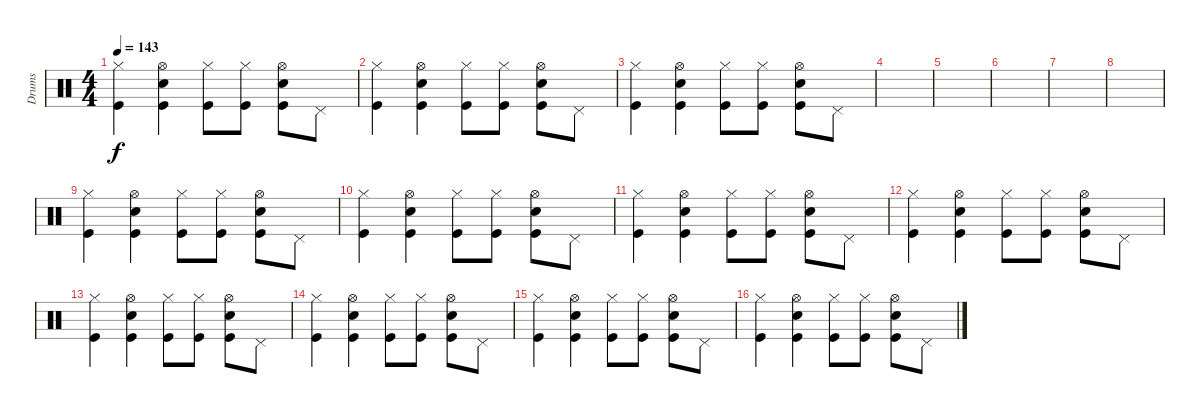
\track ("Drums" "Drums") {instrument percussion}
\staff {score}
\articulation defaults
\ts (4 4)
\tempo 143
\clef neutral
\ks c
("Hi-Hat (closed)" "Kick (hit)").4{dy f} ("Snare (hit) 2" "Hi-Hat (open)" "Kick (hit)").4 ("Hi-Hat (closed)" "Kick (hit)").8 ("Hi-Hat (closed)" "Kick (hit)").8 ("Snare (hit) 2" "Hi-Hat (open)" "Kick (hit)").8 "Pedal Hi-Hat (hit)".8 |
("Hi-Hat (closed)" "Kick (hit)").4 ("Snare (hit) 2" "Hi-Hat (open)" "Kick (hit)").4 ("Hi-Hat (closed)" "Kick (hit)").8 ("Hi-Hat (closed)" "Kick (hit)").8 ("Snare (hit) 2" "Hi-Hat (open)" "Kick (hit)").8 "Pedal Hi-Hat (hit)".8 |
("Hi-Hat (closed)" "Kick (hit)").4 ("Snare (hit) 2" "Hi-Hat (open)" "Kick (hit)").4 ("Hi-Hat (closed)" "Kick (hit)").8 ("Hi-Hat (closed)" "Kick (hit)").8 ("Snare (hit) 2" "Hi-Hat (open)" "Kick (hit)").8 "Pedal Hi-Hat (hit)".8 |
|
|
|
|
|
("Hi-Hat (closed)" "Kick (hit)").4 ("Snare (hit) 2" "Hi-Hat (open)" "Kick (hit)").4 ("Hi-Hat (closed)" "Kick (hit)").8 ("Hi-Hat (closed)" "Kick (hit)").8 ("Snare (hit) 2" "Hi-Hat (open)" "Kick (hit)").8 "Pedal Hi-Hat (hit)".8 |
("Hi-Hat (closed)" "Kick (hit)").4 ("Snare (hit) 2" "Hi-Hat (open)" "Kick (hit)").4 ("Hi-Hat (closed)" "Kick (hit)").8 ("Hi-Hat (closed)" "Kick (hit)").8 ("Snare (hit) 2" "Hi-Hat (open)" "Kick (hit)").8 "Pedal Hi-Hat (hit)".8 |
("Hi-Hat (closed)" "Kick (hit)").4 ("Snare (hit) 2" "Hi-Hat (open)" "Kick (hit)").4 ("Hi-Hat (closed)" "Kick (hit)").8 ("Hi-Hat (closed)" "Kick (hit)").8 ("Snare (hit) 2" "Hi-Hat (open)" "Kick (hit)").8 "Pedal Hi-Hat (hit)".8 |
("Hi-Hat (closed)" "Kick (hit)").4 ("Snare (hit) 2" "Hi-Hat (open)" "Kick (hit)").4 ("Hi-Hat (closed)" "Kick (hit)").8 ("Hi-Hat (closed)" "Kick (hit)").8 ("Snare (hit) 2" "Hi-Hat (open)" "Kick (hit)").8 "Pedal Hi-Hat (hit)".8 |
("Hi-Hat (closed)" "Kick (hit)").4 ("Snare (hit) 2" "Hi-Hat (open)" "Kick (hit)").4 ("Hi-Hat (closed)" "Kick (hit)").8 ("Hi-Hat (closed)" "Kick (hit)").8 ("Snare (hit) 2" "Hi-Hat (open)" "Kick (hit)").8 "Pedal Hi-Hat (hit)".8 |
("Hi-Hat (closed)" "Kick (hit)").4 ("Snare (hit) 2" "Hi-Hat (open)" "Kick (hit)").4 ("Hi-Hat (closed)" "Kick (hit)").8 ("Hi-Hat (closed)" "Kick (hit)").8 ("Snare (hit) 2" "Hi-Hat (open)" "Kick (hit)").8 "Pedal Hi-Hat (hit)".8 |
("Hi-Hat (closed)" "Kick (hit)").4 ("Snare (hit) 2" "Hi-Hat (open)" "Kick (hit)").4 ("Hi-Hat (closed)" "Kick (hit)").8 ("Hi-Hat (closed)" "Kick (hit)").8 ("Snare (hit) 2" "Hi-Hat (open)" "Kick (hit)").8 "Pedal Hi-Hat (hit)".8 |
("Hi-Hat (closed)" "Kick (hit)").4 ("Snare (hit) 2" "Hi-Hat (open)" "Kick (hit)").4 ("Hi-Hat (closed)" "Kick (hit)").8 ("Hi-Hat (closed)" "Kick (hit)").8 ("Snare (hit) 2" "Hi-Hat (open)" "Kick (hit)").8 "Pedal Hi-Hat (hit)".8
